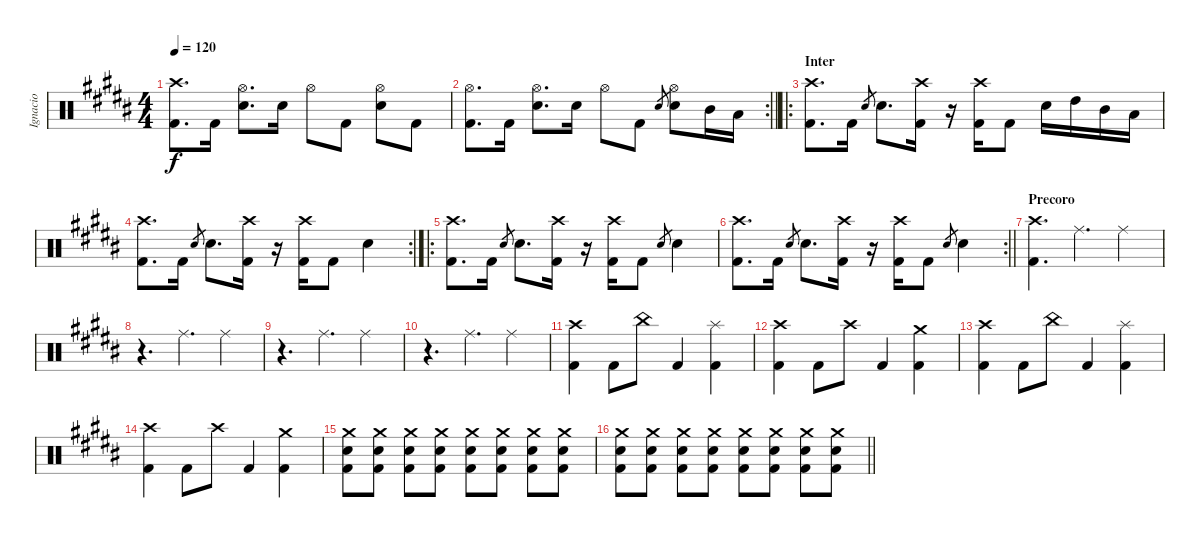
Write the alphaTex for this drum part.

\track ("Ignacio" "Ignacio") {instrument percussion}
\staff {score}
\articulation defaults
\ts (4 4)
\tempo 120
\clef neutral
\ks b
("Crash high (hit)" "Kick (hit) 2").8{d dy f} "Kick (hit) 2".16 ("Hi-Hat (open)" "Snare (hit) 2").8{d} "Snare (hit) 2".16 "Hi-Hat (open)".8 "Kick (hit) 2".8 ("Hi-Hat (open)" "Snare (hit) 2").8 "Kick (hit) 2".8 |
\rc 2
\barLineRight lightlight
("Hi-Hat (open)" "Kick (hit) 2").8{d} "Kick (hit) 2".16 ("Hi-Hat (open)" "Snare (hit) 2").8{d} "Snare (hit) 2".16 "Hi-Hat (open)".8 "Kick (hit) 2".8 "Snare (hit) 2".8{gr} ("Hi-Hat (open)" "Snare (hit) 2").8 "Mid Tom (hit)".16 "Low Tom (hit)".16 |
\ro
\section ("" "Inter")
("Crash high (hit)" "Kick (hit) 2").8{d} "Kick (hit) 2".16 "Snare (hit) 2".8{gr} "Snare (hit) 2".8{d} ("Crash high (hit)" "Kick (hit) 2").16 r.16 ("Crash high (hit)" "Kick (hit) 2").16 "Kick (hit) 2".8 "Snare (hit) 2".16 "High Tom (hit)".16 "Mid Tom (hit)".16 "Low Tom (hit)".16 |
\rc 2
("Crash high (hit)" "Kick (hit) 2").8{d} "Kick (hit) 2".16 "Snare (hit) 2".8{gr} "Snare (hit) 2".8{d} ("Crash high (hit)" "Kick (hit) 2").16 r.16 ("Crash high (hit)" "Kick (hit) 2").16 "Kick (hit) 2".8 "Snare (hit) 2".4 |
\ro
("Crash high (hit)" "Kick (hit) 2").8{d} "Kick (hit) 2".16 "Snare (hit) 2".8{gr} "Snare (hit) 2".8{d} ("Crash high (hit)" "Kick (hit) 2").16 r.16 ("Crash high (hit)" "Kick (hit) 2").16 "Kick (hit) 2".8 "Snare (hit) 2".8{gr} "Snare (hit) 2".4 |
\rc 2
\barLineRight lightlight
("Crash high (hit)" "Kick (hit) 2").8{d} "Kick (hit) 2".16 "Snare (hit) 2".8{gr} "Snare (hit) 2".8{d} ("Crash high (hit)" "Kick (hit) 2").16 r.16 ("Crash high (hit)" "Kick (hit) 2").16 "Kick (hit) 2".8 "Snare (hit) 2".8{gr} "Snare (hit) 2".4 |
\section ("" "Precoro")
("Crash high (hit)" "Kick (hit) 2").4{d} "Ride (middle)".4{d} "Ride (middle)".4 |
r.4{d} "Ride (middle)".4{d} "Ride (middle)".4 |
r.4{d} "Ride (middle)".4{d} "Ride (middle)".4 |
r.4{d} "Ride (middle)".4{d} "Ride (middle)".4 |
("Crash high (hit)" "Kick (hit) 2").4 "Kick (hit) 2".8 "China (hit)".8 "Kick (hit) 2".4 ("Splash (hit)" "Kick (hit) 2").4 |
("Crash high (hit)" "Kick (hit) 2").4 "Kick (hit) 2".8 "Crash high (hit)".8 "Kick (hit) 2".4 ("Crash medium (hit)" "Kick (hit) 2").4 |
("Crash high (hit)" "Kick (hit) 2").4 "Kick (hit) 2".8 "China (hit)".8 "Kick (hit) 2".4 ("Splash (hit)" "Kick (hit) 2").4 |
("Crash high (hit)" "Kick (hit) 2").4 "Kick (hit) 2".8 "Crash high (hit)".8 "Kick (hit) 2".4 ("Crash medium (hit)" "Kick (hit) 2").4 |
("Crash medium (hit)" "Snare (hit) 2" "Kick (hit) 2").8 ("Crash medium (hit)" "Snare (hit) 2" "Kick (hit) 2").8 ("Crash medium (hit)" "Snare (hit) 2" "Kick (hit) 2").8 ("Crash medium (hit)" "Snare (hit) 2" "Kick (hit) 2").8 ("Crash medium (hit)" "Snare (hit) 2" "Kick (hit) 2").8 ("Crash medium (hit)" "Snare (hit) 2" "Kick (hit) 2").8 ("Crash medium (hit)" "Snare (hit) 2" "Kick (hit) 2").8 ("Crash medium (hit)" "Snare (hit) 2" "Kick (hit) 2").8 |
\barLineRight lightlight
("Crash medium (hit)" "Snare (hit) 2" "Kick (hit) 2").8 ("Crash medium (hit)" "Snare (hit) 2" "Kick (hit) 2").8 ("Crash medium (hit)" "Snare (hit) 2" "Kick (hit) 2").8 ("Crash medium (hit)" "Snare (hit) 2" "Kick (hit) 2").8 ("Crash medium (hit)" "Snare (hit) 2" "Kick (hit) 2").8 ("Crash medium (hit)" "Snare (hit) 2" "Kick (hit) 2").8 ("Crash medium (hit)" "Snare (hit) 2" "Kick (hit) 2").8 ("Crash medium (hit)" "Snare (hit) 2" "Kick (hit) 2").8
